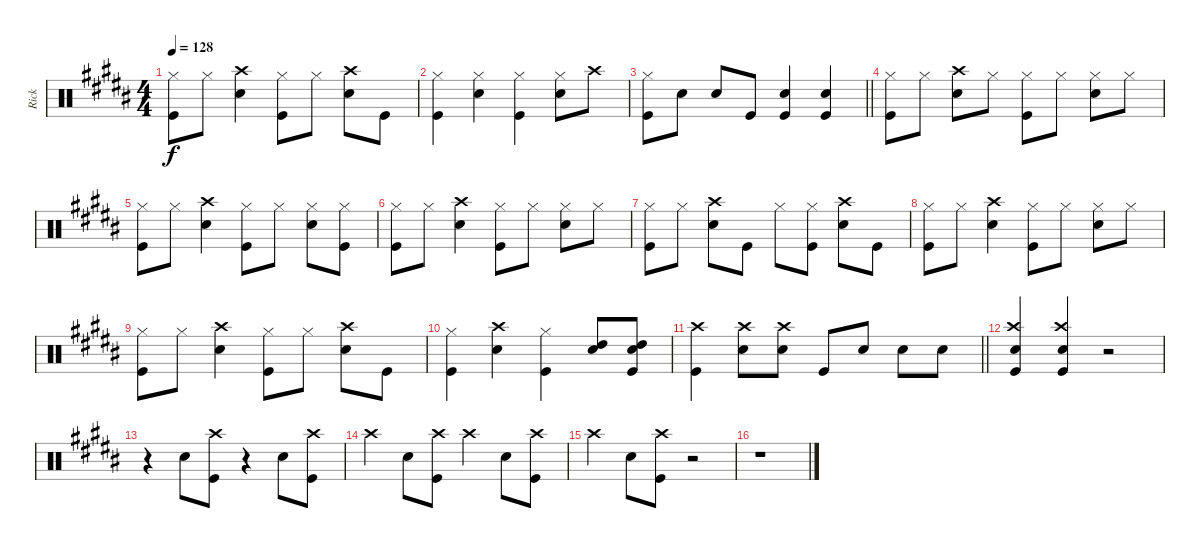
\track ("Rick" "Rick") {instrument percussion}
\staff {score}
\articulation defaults
\ts (4 4)
\tempo 128
\clef neutral
\ks b
("Hi-Hat (closed)" "Kick (hit)").8{dy f} "Hi-Hat (closed)".8 ("Crash high (hit)" "Snare (hit) 2").4 ("Hi-Hat (closed)" "Kick (hit)").8 "Hi-Hat (closed)".8 ("Crash high (hit)" "Snare (hit) 2").8 "Kick (hit)".8 |
("Hi-Hat (closed)" "Kick (hit)").4 ("Hi-Hat (closed)" "Snare (hit) 2").4 ("Hi-Hat (closed)" "Kick (hit)").4 ("Hi-Hat (closed)" "Snare (hit) 2").8 "Crash high (hit)".8 |
\barLineRight lightlight
("Hi-Hat (closed)" "Kick (hit)").8 "Snare (hit) 2".8 "Snare (hit) 2".8 "Kick (hit)".8 ("Snare (hit) 2" "Kick (hit)").4 ("Snare (hit) 2" "Kick (hit)").4 |
("Hi-Hat (closed)" "Kick (hit)").8 "Hi-Hat (closed)".8 ("Crash high (hit)" "Snare (hit) 2").8 "Hi-Hat (closed)".8 ("Hi-Hat (closed)" "Kick (hit)").8 "Hi-Hat (closed)".8 ("Hi-Hat (closed)" "Snare (hit) 2").8 "Hi-Hat (closed)".8 |
("Hi-Hat (closed)" "Kick (hit)").8 "Hi-Hat (closed)".8 ("Crash high (hit)" "Snare (hit) 2").4 ("Hi-Hat (closed)" "Kick (hit)").8 "Hi-Hat (closed)".8 ("Hi-Hat (closed)" "Snare (hit) 2").8 ("Hi-Hat (closed)" "Kick (hit)").8 |
("Hi-Hat (closed)" "Kick (hit)").8 "Hi-Hat (closed)".8 ("Crash high (hit)" "Snare (hit) 2").4 ("Hi-Hat (closed)" "Kick (hit)").8 "Hi-Hat (closed)".8 ("Hi-Hat (closed)" "Snare (hit) 2").8 "Hi-Hat (closed)".8 |
("Hi-Hat (closed)" "Kick (hit)").8 "Hi-Hat (closed)".8 ("Crash high (hit)" "Snare (hit) 2").8 "Kick (hit)".8 "Hi-Hat (closed)".8 ("Hi-Hat (closed)" "Kick (hit)").8 ("Crash high (hit)" "Snare (hit) 2").8 "Kick (hit)".8 |
("Hi-Hat (closed)" "Kick (hit)").8 "Hi-Hat (closed)".8 ("Crash high (hit)" "Snare (hit) 2").4 ("Hi-Hat (closed)" "Kick (hit)").8 "Hi-Hat (closed)".8 ("Hi-Hat (closed)" "Snare (hit) 2").8 "Hi-Hat (closed)".8 |
("Hi-Hat (closed)" "Kick (hit)").8 "Hi-Hat (closed)".8 ("Crash high (hit)" "Snare (hit) 2").4 ("Hi-Hat (closed)" "Kick (hit)").8 "Hi-Hat (closed)".8 ("Crash high (hit)" "Snare (hit) 2").8 "Kick (hit)".8 |
("Hi-Hat (closed)" "Kick (hit)").4 ("Crash high (hit)" "Snare (hit) 2").4 ("Hi-Hat (closed)" "Kick (hit)").4 ("High Tom (hit)" "Snare (hit) 2").8 ("High Tom (hit)" "Snare (hit) 2" "Kick (hit)").8 |
\barLineRight lightlight
("Crash high (hit)" "Kick (hit)").4 ("Crash high (hit)" "Snare (hit) 2").8 ("Crash high (hit)" "Snare (hit) 2").8 "Kick (hit)".8 "Snare (hit) 2".8 "Snare (hit) 2".8 "Snare (hit) 2".8 |
("Crash high (hit)" "Snare (hit) 2" "Kick (hit)").4 ("Crash high (hit)" "Snare (hit) 2" "Kick (hit)").4 r.2 |
r.4 "Snare (hit) 2".8 ("Crash high (hit)" "Kick (hit)").8 r.4 "Snare (hit) 2".8 ("Crash high (hit)" "Kick (hit)").8 |
"Crash high (hit)".4 "Snare (hit) 2".8 ("Crash high (hit)" "Kick (hit)").8 "Crash high (hit)".4 "Snare (hit) 2".8 ("Crash high (hit)" "Kick (hit)").8 |
"Crash high (hit)".4 "Snare (hit) 2".8 ("Crash high (hit)" "Kick (hit)").8 r.2 |
r.1
